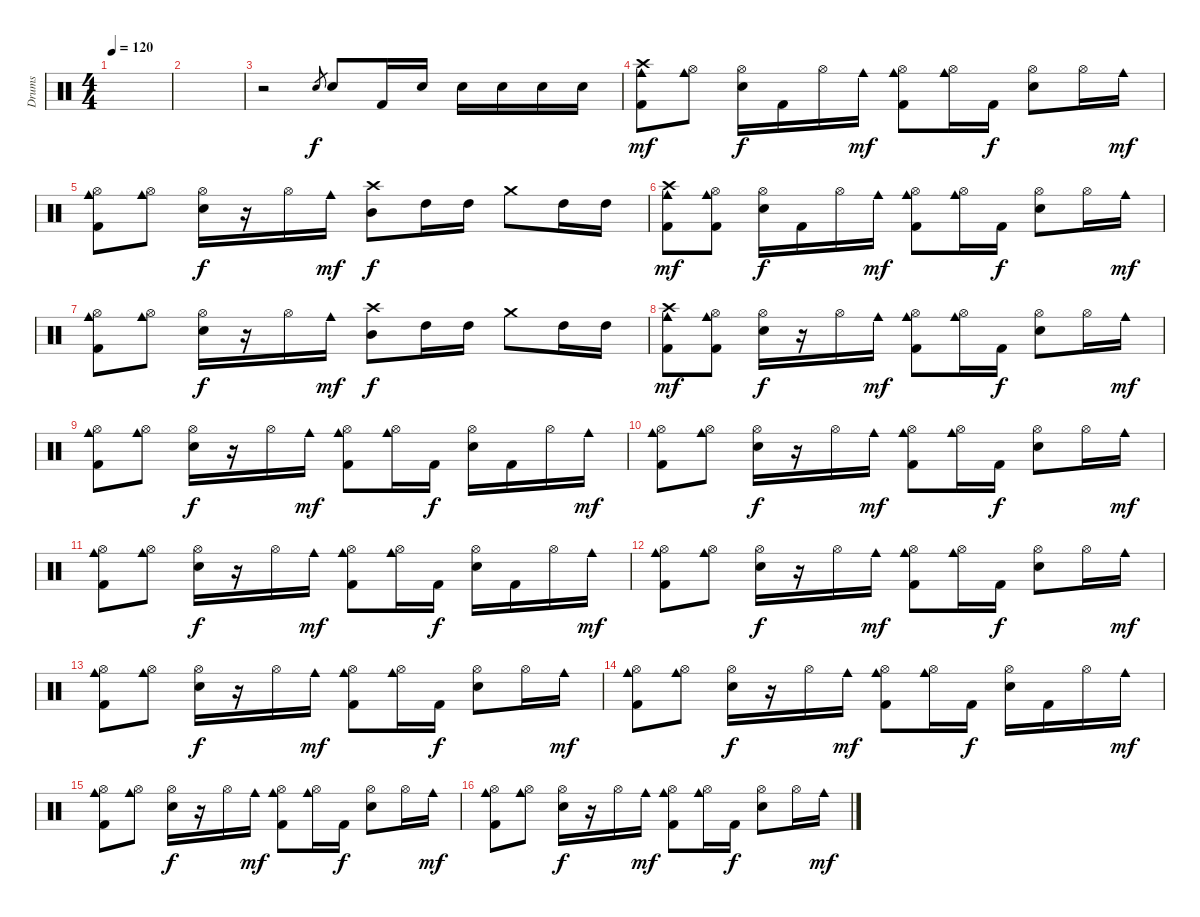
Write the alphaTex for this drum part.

\track ("Drums" "Drums") {instrument percussion}
\staff {score}
\articulation defaults
\ts (4 4)
\tempo 120
\clef neutral
\ks c
|
|
r.2 "Snare (hit) 2".8{gr} "Snare (hit) 2".8 "Kick (hit) 2".16 "Snare (hit) 2".16 "Snare (hit) 2".16 "Snare (hit) 2".16 "Snare (hit) 2".16 "Snare (hit) 2".16 |
("Kick (hit) 2" "Crash high (hit)" "Cowbell medium (hit)").8{dy mf} ("Hi-Hat (open)" "Cowbell medium (hit)").8 ("Snare (hit) 2" "Hi-Hat (open)").16{dy f} "Kick (hit) 2".16 "Hi-Hat (open)".16 "Cowbell medium (hit)".16{dy mf} ("Kick (hit) 2" "Hi-Hat (open)" "Cowbell medium (hit)").8 ("Hi-Hat (open)" "Cowbell medium (hit)").16 "Kick (hit) 2".16{dy f} ("Snare (hit) 2" "Hi-Hat (open)").8 "Hi-Hat (open)".16 "Cowbell medium (hit)".16{dy mf} |
("Kick (hit) 2" "Hi-Hat (open)" "Cowbell medium (hit)").8 ("Hi-Hat (open)" "Cowbell medium (hit)").8 ("Snare (hit) 2" "Hi-Hat (open)").16{dy f} r.16 "Hi-Hat (open)".16 "Cowbell medium (hit)".16{dy mf} ("Crash high (hit)" "Mid Tom (hit)").8{dy f} "High Tom (hit)".16 "High Tom (hit)".16 "Crash medium (hit)".8 "High Tom (hit)".16 "High Tom (hit)".16 |
("Kick (hit) 2" "Crash high (hit)" "Cowbell medium (hit)").8{dy mf} ("Kick (hit) 2" "Hi-Hat (open)" "Cowbell medium (hit)").8 ("Snare (hit) 2" "Hi-Hat (open)").16{dy f} "Kick (hit) 2".16 "Hi-Hat (open)".16 "Cowbell medium (hit)".16{dy mf} ("Kick (hit) 2" "Hi-Hat (open)" "Cowbell medium (hit)").8 ("Hi-Hat (open)" "Cowbell medium (hit)").16 "Kick (hit) 2".16{dy f} ("Snare (hit) 2" "Hi-Hat (open)").8 "Hi-Hat (open)".16 "Cowbell medium (hit)".16{dy mf} |
("Kick (hit) 2" "Hi-Hat (open)" "Cowbell medium (hit)").8 ("Hi-Hat (open)" "Cowbell medium (hit)").8 ("Snare (hit) 2" "Hi-Hat (open)").16{dy f} r.16 "Hi-Hat (open)".16 "Cowbell medium (hit)".16{dy mf} ("Crash high (hit)" "Mid Tom (hit)").8{dy f} "High Tom (hit)".16 "High Tom (hit)".16 "Crash medium (hit)".8 "High Tom (hit)".16 "High Tom (hit)".16 |
("Kick (hit) 2" "Crash high (hit)" "Cowbell medium (hit)").8{dy mf} ("Kick (hit) 2" "Hi-Hat (open)" "Cowbell medium (hit)").8 ("Snare (hit) 2" "Hi-Hat (open)").16{dy f} r.16 "Hi-Hat (open)".16 "Cowbell medium (hit)".16{dy mf} ("Kick (hit) 2" "Hi-Hat (open)" "Cowbell medium (hit)").8 ("Hi-Hat (open)" "Cowbell medium (hit)").16 "Kick (hit) 2".16{dy f} ("Snare (hit) 2" "Hi-Hat (open)").8 "Hi-Hat (open)".16 "Cowbell medium (hit)".16{dy mf} |
("Kick (hit) 2" "Hi-Hat (open)" "Cowbell medium (hit)").8 ("Hi-Hat (open)" "Cowbell medium (hit)").8 ("Snare (hit) 2" "Hi-Hat (open)").16{dy f} r.16 "Hi-Hat (open)".16 "Cowbell medium (hit)".16{dy mf} ("Kick (hit) 2" "Hi-Hat (open)" "Cowbell medium (hit)").8 ("Hi-Hat (open)" "Cowbell medium (hit)").16 "Kick (hit) 2".16{dy f} ("Snare (hit) 2" "Hi-Hat (open)").16 "Kick (hit) 2".16 "Hi-Hat (open)".16 "Cowbell medium (hit)".16{dy mf} |
("Kick (hit) 2" "Hi-Hat (open)" "Cowbell medium (hit)").8 ("Hi-Hat (open)" "Cowbell medium (hit)").8 ("Snare (hit) 2" "Hi-Hat (open)").16{dy f} r.16 "Hi-Hat (open)".16 "Cowbell medium (hit)".16{dy mf} ("Kick (hit) 2" "Hi-Hat (open)" "Cowbell medium (hit)").8 ("Hi-Hat (open)" "Cowbell medium (hit)").16 "Kick (hit) 2".16{dy f} ("Snare (hit) 2" "Hi-Hat (open)").8 "Hi-Hat (open)".16 "Cowbell medium (hit)".16{dy mf} |
("Kick (hit) 2" "Hi-Hat (open)" "Cowbell medium (hit)").8 ("Hi-Hat (open)" "Cowbell medium (hit)").8 ("Snare (hit) 2" "Hi-Hat (open)").16{dy f} r.16 "Hi-Hat (open)".16 "Cowbell medium (hit)".16{dy mf} ("Kick (hit) 2" "Hi-Hat (open)" "Cowbell medium (hit)").8 ("Hi-Hat (open)" "Cowbell medium (hit)").16 "Kick (hit) 2".16{dy f} ("Snare (hit) 2" "Hi-Hat (open)").16 "Kick (hit) 2".16 "Hi-Hat (open)".16 "Cowbell medium (hit)".16{dy mf} |
("Kick (hit) 2" "Hi-Hat (open)" "Cowbell medium (hit)").8 ("Hi-Hat (open)" "Cowbell medium (hit)").8 ("Snare (hit) 2" "Hi-Hat (open)").16{dy f} r.16 "Hi-Hat (open)".16 "Cowbell medium (hit)".16{dy mf} ("Kick (hit) 2" "Hi-Hat (open)" "Cowbell medium (hit)").8 ("Hi-Hat (open)" "Cowbell medium (hit)").16 "Kick (hit) 2".16{dy f} ("Snare (hit) 2" "Hi-Hat (open)").8 "Hi-Hat (open)".16 "Cowbell medium (hit)".16{dy mf} |
("Kick (hit) 2" "Hi-Hat (open)" "Cowbell medium (hit)").8 ("Hi-Hat (open)" "Cowbell medium (hit)").8 ("Snare (hit) 2" "Hi-Hat (open)").16{dy f} r.16 "Hi-Hat (open)".16 "Cowbell medium (hit)".16{dy mf} ("Kick (hit) 2" "Hi-Hat (open)" "Cowbell medium (hit)").8 ("Hi-Hat (open)" "Cowbell medium (hit)").16 "Kick (hit) 2".16{dy f} ("Snare (hit) 2" "Hi-Hat (open)").8 "Hi-Hat (open)".16 "Cowbell medium (hit)".16{dy mf} |
("Kick (hit) 2" "Hi-Hat (open)" "Cowbell medium (hit)").8 ("Hi-Hat (open)" "Cowbell medium (hit)").8 ("Snare (hit) 2" "Hi-Hat (open)").16{dy f} r.16 "Hi-Hat (open)".16 "Cowbell medium (hit)".16{dy mf} ("Kick (hit) 2" "Hi-Hat (open)" "Cowbell medium (hit)").8 ("Hi-Hat (open)" "Cowbell medium (hit)").16 "Kick (hit) 2".16{dy f} ("Snare (hit) 2" "Hi-Hat (open)").16 "Kick (hit) 2".16 "Hi-Hat (open)".16 "Cowbell medium (hit)".16{dy mf} |
("Kick (hit) 2" "Hi-Hat (open)" "Cowbell medium (hit)").8 ("Hi-Hat (open)" "Cowbell medium (hit)").8 ("Snare (hit) 2" "Hi-Hat (open)").16{dy f} r.16 "Hi-Hat (open)".16 "Cowbell medium (hit)".16{dy mf} ("Kick (hit) 2" "Hi-Hat (open)" "Cowbell medium (hit)").8 ("Hi-Hat (open)" "Cowbell medium (hit)").16 "Kick (hit) 2".16{dy f} ("Snare (hit) 2" "Hi-Hat (open)").8 "Hi-Hat (open)".16 "Cowbell medium (hit)".16{dy mf} |
("Kick (hit) 2" "Hi-Hat (open)" "Cowbell medium (hit)").8 ("Hi-Hat (open)" "Cowbell medium (hit)").8 ("Snare (hit) 2" "Hi-Hat (open)").16{dy f} r.16 "Hi-Hat (open)".16 "Cowbell medium (hit)".16{dy mf} ("Kick (hit) 2" "Hi-Hat (open)" "Cowbell medium (hit)").8 ("Hi-Hat (open)" "Cowbell medium (hit)").16 "Kick (hit) 2".16{dy f} ("Snare (hit) 2" "Hi-Hat (open)").8 "Hi-Hat (open)".16 "Cowbell medium (hit)".16{dy mf}
